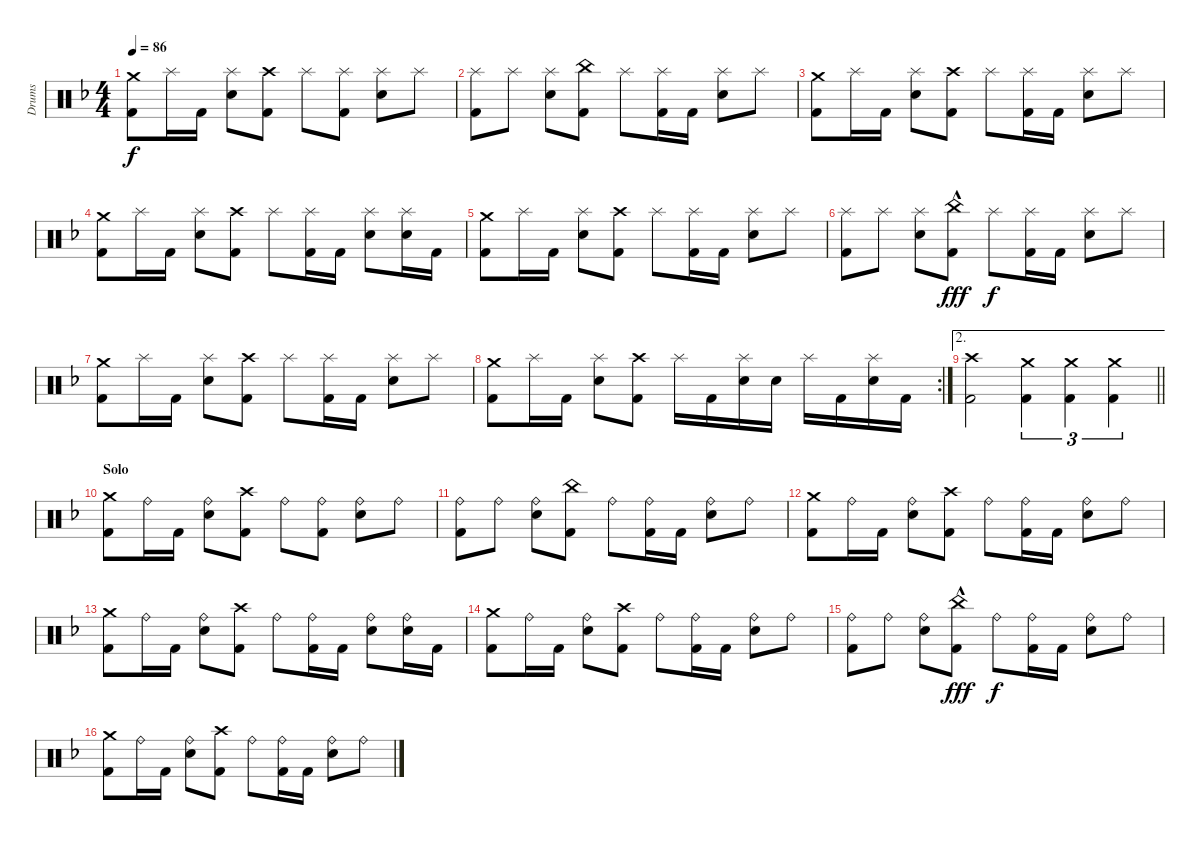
\track ("Drums" "Drums") {instrument percussion}
\staff {score}
\articulation defaults
\ts (4 4)
\tempo 86
\clef neutral
\ks dminor
("Crash medium (hit)" "Kick (hit) 2").8{dy f} "Splash (hit)".16 "Kick (hit) 2".16 ("Splash (hit)" "Snare (hit) 2").8 ("Crash high (hit)" "Kick (hit) 2").8 "Splash (hit)".8 ("Splash (hit)" "Kick (hit) 2").8 ("Splash (hit)" "Snare (hit) 2").8 "Splash (hit)".8 |
("Splash (hit)" "Kick (hit) 2").8 "Splash (hit)".8 ("Splash (hit)" "Snare (hit) 2").8 ("China (hit)" "Kick (hit) 2").8 "Splash (hit)".8 ("Splash (hit)" "Kick (hit) 2").16 "Kick (hit) 2".16 ("Splash (hit)" "Snare (hit) 2").8 "Splash (hit)".8 |
("Crash medium (hit)" "Kick (hit) 2").8 "Splash (hit)".16 "Kick (hit) 2".16 ("Splash (hit)" "Snare (hit) 2").8 ("Crash high (hit)" "Kick (hit) 2").8 "Splash (hit)".8 ("Splash (hit)" "Kick (hit) 2").16 "Kick (hit) 2".16 ("Splash (hit)" "Snare (hit) 2").8 "Splash (hit)".8 |
("Crash medium (hit)" "Kick (hit) 2").8 "Splash (hit)".16 "Kick (hit) 2".16 ("Splash (hit)" "Snare (hit) 2").8 ("Crash high (hit)" "Kick (hit) 2").8 "Splash (hit)".8 ("Splash (hit)" "Kick (hit) 2").16 "Kick (hit) 2".16 ("Splash (hit)" "Snare (hit) 2").8 ("Splash (hit)" "Snare (hit) 2").16 "Kick (hit) 2".16 |
("Crash medium (hit)" "Kick (hit) 2").8 "Splash (hit)".16 "Kick (hit) 2".16 ("Splash (hit)" "Snare (hit) 2").8 ("Crash high (hit)" "Kick (hit) 2").8 "Splash (hit)".8 ("Splash (hit)" "Kick (hit) 2").16 "Kick (hit) 2".16 ("Splash (hit)" "Snare (hit) 2").8 "Splash (hit)".8 |
("Splash (hit)" "Kick (hit) 2").8 "Splash (hit)".8 ("Splash (hit)" "Snare (hit) 2").8 ("China (hit)"{hac} "Kick (hit) 2").8{dy fff} "Splash (hit)".8{dy f} ("Splash (hit)" "Kick (hit) 2").16 "Kick (hit) 2".16 ("Splash (hit)" "Snare (hit) 2").8 "Splash (hit)".8 |
("Crash medium (hit)" "Kick (hit) 2").8 "Splash (hit)".16 "Kick (hit) 2".16 ("Splash (hit)" "Snare (hit) 2").8 ("Crash high (hit)" "Kick (hit) 2").8 "Splash (hit)".8 ("Splash (hit)" "Kick (hit) 2").16 "Kick (hit) 2".16 ("Splash (hit)" "Snare (hit) 2").8 "Splash (hit)".8 |
\rc 2
("Crash medium (hit)" "Kick (hit) 2").8 "Splash (hit)".16 "Kick (hit) 2".16 ("Splash (hit)" "Snare (hit) 2").8 ("Crash high (hit)" "Kick (hit) 2").8 "Splash (hit)".16 "Kick (hit) 2".16 ("Splash (hit)" "Snare (hit) 2").16 "Snare (hit) 2".16 "Splash (hit)".16 "Kick (hit) 2".16 ("Splash (hit)" "Snare (hit) 2").16 "Kick (hit) 2".16 |
\ae 2
\barLineRight lightlight
("Crash high (hit)" "Kick (hit) 2").2 ("Crash medium (hit)" "Kick (hit) 2").4{tu (3 2)} ("Crash medium (hit)" "Kick (hit) 2").4{tu (3 2)} ("Crash medium (hit)" "Kick (hit) 2").4{tu (3 2)} |
\section ("" "Solo")
("Crash medium (hit)" "Kick (hit) 2").8 "Ride (bell)".16 "Kick (hit) 2".16 ("Ride (bell)" "Snare (hit) 2").8 ("Crash high (hit)" "Kick (hit) 2").8 "Ride (bell)".8 ("Ride (bell)" "Kick (hit) 2").8 ("Ride (bell)" "Snare (hit) 2").8 "Ride (bell)".8 |
("Ride (bell)" "Kick (hit) 2").8 "Ride (bell)".8 ("Ride (bell)" "Snare (hit) 2").8 ("China (hit)" "Kick (hit) 2").8 "Ride (bell)".8 ("Ride (bell)" "Kick (hit) 2").16 "Kick (hit) 2".16 ("Ride (bell)" "Snare (hit) 2").8 "Ride (bell)".8 |
("Crash medium (hit)" "Kick (hit) 2").8 "Ride (bell)".16 "Kick (hit) 2".16 ("Ride (bell)" "Snare (hit) 2").8 ("Crash high (hit)" "Kick (hit) 2").8 "Ride (bell)".8 ("Ride (bell)" "Kick (hit) 2").16 "Kick (hit) 2".16 ("Ride (bell)" "Snare (hit) 2").8 "Ride (bell)".8 |
("Crash medium (hit)" "Kick (hit) 2").8 "Ride (bell)".16 "Kick (hit) 2".16 ("Ride (bell)" "Snare (hit) 2").8 ("Crash high (hit)" "Kick (hit) 2").8 "Ride (bell)".8 ("Ride (bell)" "Kick (hit) 2").16 "Kick (hit) 2".16 ("Ride (bell)" "Snare (hit) 2").8 ("Ride (bell)" "Snare (hit) 2").16 "Kick (hit) 2".16 |
("Crash medium (hit)" "Kick (hit) 2").8 "Ride (bell)".16 "Kick (hit) 2".16 ("Ride (bell)" "Snare (hit) 2").8 ("Crash high (hit)" "Kick (hit) 2").8 "Ride (bell)".8 ("Ride (bell)" "Kick (hit) 2").16 "Kick (hit) 2".16 ("Ride (bell)" "Snare (hit) 2").8 "Ride (bell)".8 |
("Ride (bell)" "Kick (hit) 2").8 "Ride (bell)".8 ("Ride (bell)" "Snare (hit) 2").8 ("China (hit)"{hac} "Kick (hit) 2").8{dy fff} "Ride (bell)".8{dy f} ("Ride (bell)" "Kick (hit) 2").16 "Kick (hit) 2".16 ("Ride (bell)" "Snare (hit) 2").8 "Ride (bell)".8 |
("Crash medium (hit)" "Kick (hit) 2").8 "Ride (bell)".16 "Kick (hit) 2".16 ("Ride (bell)" "Snare (hit) 2").8 ("Crash high (hit)" "Kick (hit) 2").8 "Ride (bell)".8 ("Ride (bell)" "Kick (hit) 2").16 "Kick (hit) 2".16 ("Ride (bell)" "Snare (hit) 2").8 "Ride (bell)".8
